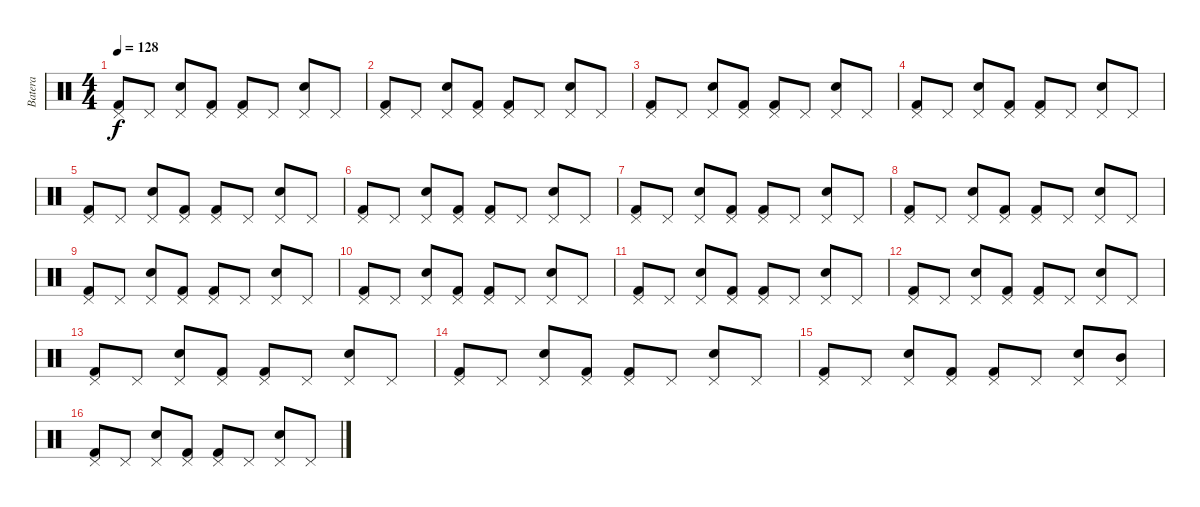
\track ("Batera" "Batera") {instrument percussion}
\staff {score}
\articulation defaults
\ts (4 4)
\tempo 128
\clef neutral
\ks c
("Pedal Hi-Hat (hit)" "Kick (hit) 2").8{dy f} "Pedal Hi-Hat (hit)".8 ("Pedal Hi-Hat (hit)" "Snare (hit) 2").8 ("Pedal Hi-Hat (hit)" "Kick (hit) 2").8 ("Pedal Hi-Hat (hit)" "Kick (hit) 2").8 "Pedal Hi-Hat (hit)".8 ("Pedal Hi-Hat (hit)" "Snare (hit) 2").8 "Pedal Hi-Hat (hit)".8 |
("Pedal Hi-Hat (hit)" "Kick (hit) 2").8 "Pedal Hi-Hat (hit)".8 ("Pedal Hi-Hat (hit)" "Snare (hit) 2").8 ("Pedal Hi-Hat (hit)" "Kick (hit) 2").8 ("Pedal Hi-Hat (hit)" "Kick (hit) 2").8 "Pedal Hi-Hat (hit)".8 ("Pedal Hi-Hat (hit)" "Snare (hit) 2").8 "Pedal Hi-Hat (hit)".8 |
("Pedal Hi-Hat (hit)" "Kick (hit) 2").8 "Pedal Hi-Hat (hit)".8 ("Pedal Hi-Hat (hit)" "Snare (hit) 2").8 ("Pedal Hi-Hat (hit)" "Kick (hit) 2").8 ("Pedal Hi-Hat (hit)" "Kick (hit) 2").8 "Pedal Hi-Hat (hit)".8 ("Pedal Hi-Hat (hit)" "Snare (hit) 2").8 "Pedal Hi-Hat (hit)".8 |
("Pedal Hi-Hat (hit)" "Kick (hit) 2").8 "Pedal Hi-Hat (hit)".8 ("Pedal Hi-Hat (hit)" "Snare (hit) 2").8 ("Pedal Hi-Hat (hit)" "Kick (hit) 2").8 ("Pedal Hi-Hat (hit)" "Kick (hit) 2").8 "Pedal Hi-Hat (hit)".8 ("Pedal Hi-Hat (hit)" "Snare (hit) 2").8 "Pedal Hi-Hat (hit)".8 |
("Pedal Hi-Hat (hit)" "Kick (hit) 2").8 "Pedal Hi-Hat (hit)".8 ("Pedal Hi-Hat (hit)" "Snare (hit) 2").8 ("Pedal Hi-Hat (hit)" "Kick (hit) 2").8 ("Pedal Hi-Hat (hit)" "Kick (hit) 2").8 "Pedal Hi-Hat (hit)".8 ("Pedal Hi-Hat (hit)" "Snare (hit) 2").8 "Pedal Hi-Hat (hit)".8 |
("Pedal Hi-Hat (hit)" "Kick (hit) 2").8 "Pedal Hi-Hat (hit)".8 ("Pedal Hi-Hat (hit)" "Snare (hit) 2").8 ("Pedal Hi-Hat (hit)" "Kick (hit) 2").8 ("Pedal Hi-Hat (hit)" "Kick (hit) 2").8 "Pedal Hi-Hat (hit)".8 ("Pedal Hi-Hat (hit)" "Snare (hit) 2").8 "Pedal Hi-Hat (hit)".8 |
("Pedal Hi-Hat (hit)" "Kick (hit) 2").8 "Pedal Hi-Hat (hit)".8 ("Pedal Hi-Hat (hit)" "Snare (hit) 2").8 ("Pedal Hi-Hat (hit)" "Kick (hit) 2").8 ("Pedal Hi-Hat (hit)" "Kick (hit) 2").8 "Pedal Hi-Hat (hit)".8 ("Pedal Hi-Hat (hit)" "Snare (hit) 2").8 "Pedal Hi-Hat (hit)".8 |
("Pedal Hi-Hat (hit)" "Kick (hit) 2").8 "Pedal Hi-Hat (hit)".8 ("Pedal Hi-Hat (hit)" "Snare (hit) 2").8 ("Pedal Hi-Hat (hit)" "Kick (hit) 2").8 ("Pedal Hi-Hat (hit)" "Kick (hit) 2").8 "Pedal Hi-Hat (hit)".8 ("Pedal Hi-Hat (hit)" "Snare (hit) 2").8 "Pedal Hi-Hat (hit)".8 |
("Pedal Hi-Hat (hit)" "Kick (hit) 2").8 "Pedal Hi-Hat (hit)".8 ("Pedal Hi-Hat (hit)" "Snare (hit) 2").8 ("Pedal Hi-Hat (hit)" "Kick (hit) 2").8 ("Pedal Hi-Hat (hit)" "Kick (hit) 2").8 "Pedal Hi-Hat (hit)".8 ("Pedal Hi-Hat (hit)" "Snare (hit) 2").8 "Pedal Hi-Hat (hit)".8 |
("Pedal Hi-Hat (hit)" "Kick (hit) 2").8 "Pedal Hi-Hat (hit)".8 ("Pedal Hi-Hat (hit)" "Snare (hit) 2").8 ("Pedal Hi-Hat (hit)" "Kick (hit) 2").8 ("Pedal Hi-Hat (hit)" "Kick (hit) 2").8 "Pedal Hi-Hat (hit)".8 ("Pedal Hi-Hat (hit)" "Snare (hit) 2").8 "Pedal Hi-Hat (hit)".8 |
("Pedal Hi-Hat (hit)" "Kick (hit) 2").8 "Pedal Hi-Hat (hit)".8 ("Pedal Hi-Hat (hit)" "Snare (hit) 2").8 ("Pedal Hi-Hat (hit)" "Kick (hit) 2").8 ("Pedal Hi-Hat (hit)" "Kick (hit) 2").8 "Pedal Hi-Hat (hit)".8 ("Pedal Hi-Hat (hit)" "Snare (hit) 2").8 "Pedal Hi-Hat (hit)".8 |
("Pedal Hi-Hat (hit)" "Kick (hit) 2").8 "Pedal Hi-Hat (hit)".8 ("Pedal Hi-Hat (hit)" "Snare (hit) 2").8 ("Pedal Hi-Hat (hit)" "Kick (hit) 2").8 ("Pedal Hi-Hat (hit)" "Kick (hit) 2").8 "Pedal Hi-Hat (hit)".8 ("Pedal Hi-Hat (hit)" "Snare (hit) 2").8 "Pedal Hi-Hat (hit)".8 |
("Pedal Hi-Hat (hit)" "Kick (hit) 2").8 "Pedal Hi-Hat (hit)".8 ("Pedal Hi-Hat (hit)" "Snare (hit) 2").8 ("Pedal Hi-Hat (hit)" "Kick (hit) 2").8 ("Pedal Hi-Hat (hit)" "Kick (hit) 2").8 "Pedal Hi-Hat (hit)".8 ("Pedal Hi-Hat (hit)" "Snare (hit) 2").8 "Pedal Hi-Hat (hit)".8 |
("Pedal Hi-Hat (hit)" "Kick (hit) 2").8 "Pedal Hi-Hat (hit)".8 ("Pedal Hi-Hat (hit)" "Snare (hit) 2").8 ("Pedal Hi-Hat (hit)" "Kick (hit) 2").8 ("Pedal Hi-Hat (hit)" "Kick (hit) 2").8 "Pedal Hi-Hat (hit)".8 ("Pedal Hi-Hat (hit)" "Snare (hit) 2").8 "Pedal Hi-Hat (hit)".8 |
("Pedal Hi-Hat (hit)" "Kick (hit) 2").8 "Pedal Hi-Hat (hit)".8 ("Pedal Hi-Hat (hit)" "Snare (hit) 2").8 ("Pedal Hi-Hat (hit)" "Kick (hit) 2").8 ("Pedal Hi-Hat (hit)" "Kick (hit) 2").8 "Pedal Hi-Hat (hit)".8 ("Pedal Hi-Hat (hit)" "Snare (hit) 2").8 ("Mid Tom (hit)" "Pedal Hi-Hat (hit)").8 |
("Pedal Hi-Hat (hit)" "Kick (hit) 2").8 "Pedal Hi-Hat (hit)".8 ("Pedal Hi-Hat (hit)" "Snare (hit) 2").8 ("Pedal Hi-Hat (hit)" "Kick (hit) 2").8 ("Pedal Hi-Hat (hit)" "Kick (hit) 2").8 "Pedal Hi-Hat (hit)".8 ("Pedal Hi-Hat (hit)" "Snare (hit) 2").8 "Pedal Hi-Hat (hit)".8
